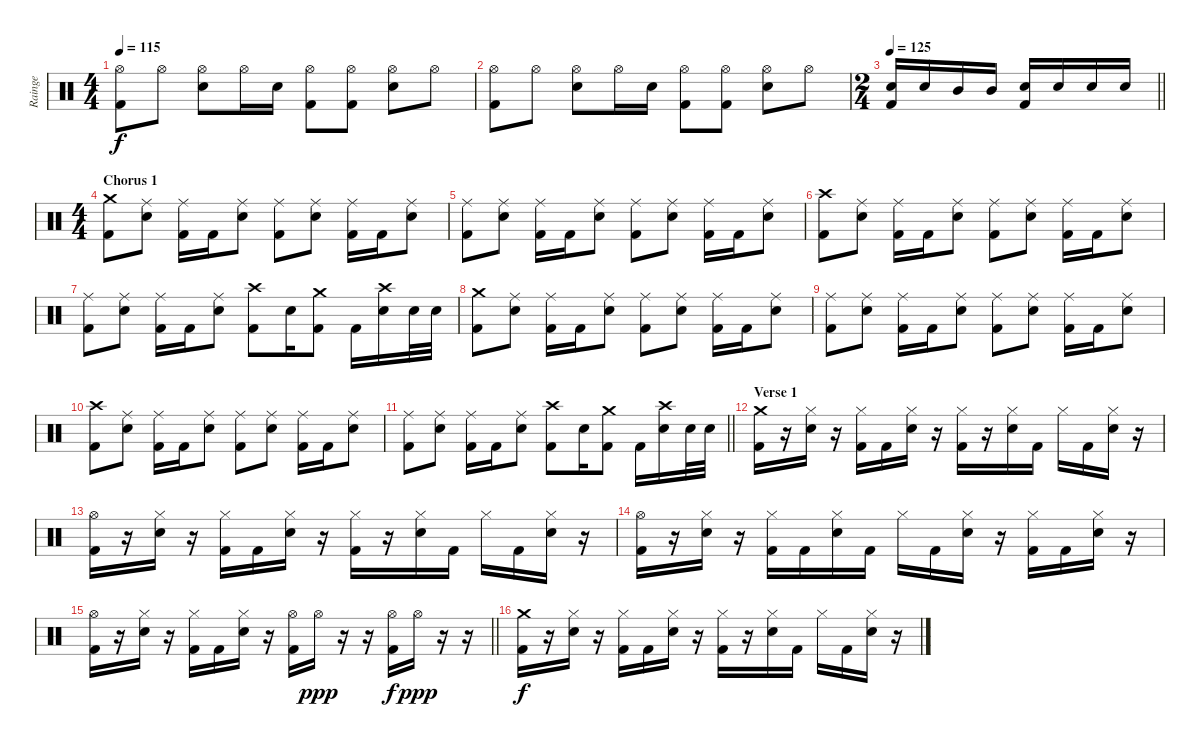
\track ("Rainge" "Rainge") {instrument percussion}
\staff {score}
\articulation defaults
\ts (4 4)
\tempo 115
\clef neutral
\ks c
("Hi-Hat (open)" "Kick (hit) 2").8{dy f} "Hi-Hat (open)".8 ("Hi-Hat (open)" "Electric Snare (hit)").8 "Hi-Hat (open)".16 "Electric Snare (hit)".16 ("Hi-Hat (open)" "Kick (hit) 2").8 ("Hi-Hat (open)" "Kick (hit) 2").8 ("Hi-Hat (open)" "Electric Snare (hit)").8 "Hi-Hat (open)".8 |
("Hi-Hat (open)" "Kick (hit) 2").8 "Hi-Hat (open)".8 ("Hi-Hat (open)" "Electric Snare (hit)").8 "Hi-Hat (open)".16 "Electric Snare (hit)".16 ("Hi-Hat (open)" "Kick (hit) 2").8 ("Hi-Hat (open)" "Kick (hit) 2").8 ("Hi-Hat (open)" "Electric Snare (hit)").8 "Hi-Hat (open)".8 |
\ts (2 4)
\tempo 125
\barLineRight lightlight
("Electric Snare (hit)" "Kick (hit) 2").16 "Electric Snare (hit)".16 "Mid Tom (hit)".16 "Mid Tom (hit)".16 ("Electric Snare (hit)" "Kick (hit) 2").16 "Electric Snare (hit)".16 "Electric Snare (hit)".16 "Electric Snare (hit)".16 |
\ts (4 4)
\section ("" "Chorus 1")
("Crash medium (hit)" "Kick (hit) 2").8 ("Ride (middle)" "Electric Snare (hit)").8 ("Ride (middle)" "Kick (hit) 2").16 "Kick (hit) 2".16 ("Ride (middle)" "Electric Snare (hit)").8 ("Ride (middle)" "Kick (hit) 2").8 ("Ride (middle)" "Electric Snare (hit)").8 ("Ride (middle)" "Kick (hit) 2").16 "Kick (hit) 2".16 ("Ride (middle)" "Electric Snare (hit)").8 |
("Ride (middle)" "Kick (hit) 2").8 ("Ride (middle)" "Electric Snare (hit)").8 ("Ride (middle)" "Kick (hit) 2").16 "Kick (hit) 2".16 ("Ride (middle)" "Electric Snare (hit)").8 ("Ride (middle)" "Kick (hit) 2").8 ("Ride (middle)" "Electric Snare (hit)").8 ("Ride (middle)" "Kick (hit) 2").16 "Kick (hit) 2".16 ("Ride (middle)" "Electric Snare (hit)").8 |
("Crash high (hit)" "Kick (hit) 2").8 ("Ride (middle)" "Electric Snare (hit)").8 ("Ride (middle)" "Kick (hit) 2").16 "Kick (hit) 2".16 ("Ride (middle)" "Electric Snare (hit)").8 ("Ride (middle)" "Kick (hit) 2").8 ("Ride (middle)" "Electric Snare (hit)").8 ("Ride (middle)" "Kick (hit) 2").16 "Kick (hit) 2".16 ("Ride (middle)" "Electric Snare (hit)").8 |
("Ride (middle)" "Kick (hit) 2").8 ("Ride (middle)" "Electric Snare (hit)").8 ("Ride (middle)" "Kick (hit) 2").16 "Kick (hit) 2".16 ("Ride (middle)" "Electric Snare (hit)").8 ("Crash high (hit)" "Kick (hit) 2").8 "Electric Snare (hit)".16 ("Crash medium (hit)" "Kick (hit) 2").8 "Kick (hit) 2".16 ("Crash high (hit)" "Electric Snare (hit)").16 "Electric Snare (hit)".32 "Electric Snare (hit)".32 |
("Crash medium (hit)" "Kick (hit) 2").8 ("Ride (middle)" "Electric Snare (hit)").8 ("Ride (middle)" "Kick (hit) 2").16 "Kick (hit) 2".16 ("Ride (middle)" "Electric Snare (hit)").8 ("Ride (middle)" "Kick (hit) 2").8 ("Ride (middle)" "Electric Snare (hit)").8 ("Ride (middle)" "Kick (hit) 2").16 "Kick (hit) 2".16 ("Ride (middle)" "Electric Snare (hit)").8 |
("Ride (middle)" "Kick (hit) 2").8 ("Ride (middle)" "Electric Snare (hit)").8 ("Ride (middle)" "Kick (hit) 2").16 "Kick (hit) 2".16 ("Ride (middle)" "Electric Snare (hit)").8 ("Ride (middle)" "Kick (hit) 2").8 ("Ride (middle)" "Electric Snare (hit)").8 ("Ride (middle)" "Kick (hit) 2").16 "Kick (hit) 2".16 ("Ride (middle)" "Electric Snare (hit)").8 |
("Crash high (hit)" "Kick (hit) 2").8 ("Ride (middle)" "Electric Snare (hit)").8 ("Ride (middle)" "Kick (hit) 2").16 "Kick (hit) 2".16 ("Ride (middle)" "Electric Snare (hit)").8 ("Ride (middle)" "Kick (hit) 2").8 ("Ride (middle)" "Electric Snare (hit)").8 ("Ride (middle)" "Kick (hit) 2").16 "Kick (hit) 2".16 ("Ride (middle)" "Electric Snare (hit)").8 |
\barLineRight lightlight
("Ride (middle)" "Kick (hit) 2").8 ("Ride (middle)" "Electric Snare (hit)").8 ("Ride (middle)" "Kick (hit) 2").16 "Kick (hit) 2".16 ("Ride (middle)" "Electric Snare (hit)").8 ("Crash high (hit)" "Kick (hit) 2").8 "Electric Snare (hit)".16 ("Crash medium (hit)" "Kick (hit) 2").8 "Kick (hit) 2".16 ("Crash high (hit)" "Electric Snare (hit)").16 "Electric Snare (hit)".32 "Electric Snare (hit)".32 |
\section ("" "Verse 1")
("Crash medium (hit)" "Kick (hit) 2").16 r.16 ("Hi-Hat (closed)" "Electric Snare (hit)").16 r.16 ("Hi-Hat (closed)" "Kick (hit) 2").16 "Kick (hit) 2".16 ("Hi-Hat (closed)" "Electric Snare (hit)").16 r.16 ("Hi-Hat (closed)" "Kick (hit) 2").16 r.16 ("Hi-Hat (closed)" "Electric Snare (hit)").16 "Kick (hit) 2".16 "Hi-Hat (closed)".16 "Kick (hit) 2".16 ("Hi-Hat (closed)" "Electric Snare (hit)").16 r.16 |
("Hi-Hat (open)" "Kick (hit) 2").16 r.16 ("Hi-Hat (closed)" "Electric Snare (hit)").16 r.16 ("Hi-Hat (closed)" "Kick (hit) 2").16 "Kick (hit) 2".16 ("Hi-Hat (closed)" "Electric Snare (hit)").16 r.16 ("Hi-Hat (closed)" "Kick (hit) 2").16 r.16 ("Hi-Hat (closed)" "Electric Snare (hit)").16 "Kick (hit) 2".16 "Hi-Hat (closed)".16 "Kick (hit) 2".16 ("Hi-Hat (closed)" "Electric Snare (hit)").16 r.16 |
("Hi-Hat (open)" "Kick (hit) 2").16 r.16 ("Hi-Hat (closed)" "Electric Snare (hit)").16 r.16 ("Hi-Hat (closed)" "Kick (hit) 2").16 "Kick (hit) 2".16 ("Hi-Hat (closed)" "Electric Snare (hit)").16 "Kick (hit) 2".16 "Hi-Hat (closed)".16 "Kick (hit) 2".16 ("Hi-Hat (closed)" "Electric Snare (hit)").16 r.16 ("Hi-Hat (closed)" "Kick (hit) 2").16 "Kick (hit) 2".16 ("Hi-Hat (closed)" "Electric Snare (hit)").16 r.16 |
\barLineRight lightlight
("Hi-Hat (open)" "Kick (hit) 2").16 r.16 ("Hi-Hat (closed)" "Electric Snare (hit)").16 r.16 ("Hi-Hat (closed)" "Kick (hit) 2").16 "Kick (hit) 2".16 ("Hi-Hat (closed)" "Electric Snare (hit)").16 r.16 ("Hi-Hat (open)" "Kick (hit) 2").16 "Hi-Hat (open)".16{dy ppp} r.16 r.16 ("Hi-Hat (open)" "Kick (hit) 2").16{dy f} "Hi-Hat (open)".16{dy ppp} r.16 r.16 |
\section ("" "")
("Crash medium (hit)" "Kick (hit) 2").16{dy f} r.16 ("Hi-Hat (closed)" "Electric Snare (hit)").16 r.16 ("Hi-Hat (closed)" "Kick (hit) 2").16 "Kick (hit) 2".16 ("Hi-Hat (closed)" "Electric Snare (hit)").16 r.16 ("Hi-Hat (closed)" "Kick (hit) 2").16 r.16 ("Hi-Hat (closed)" "Electric Snare (hit)").16 "Kick (hit) 2".16 "Hi-Hat (closed)".16 "Kick (hit) 2".16 ("Hi-Hat (closed)" "Electric Snare (hit)").16 r.16
